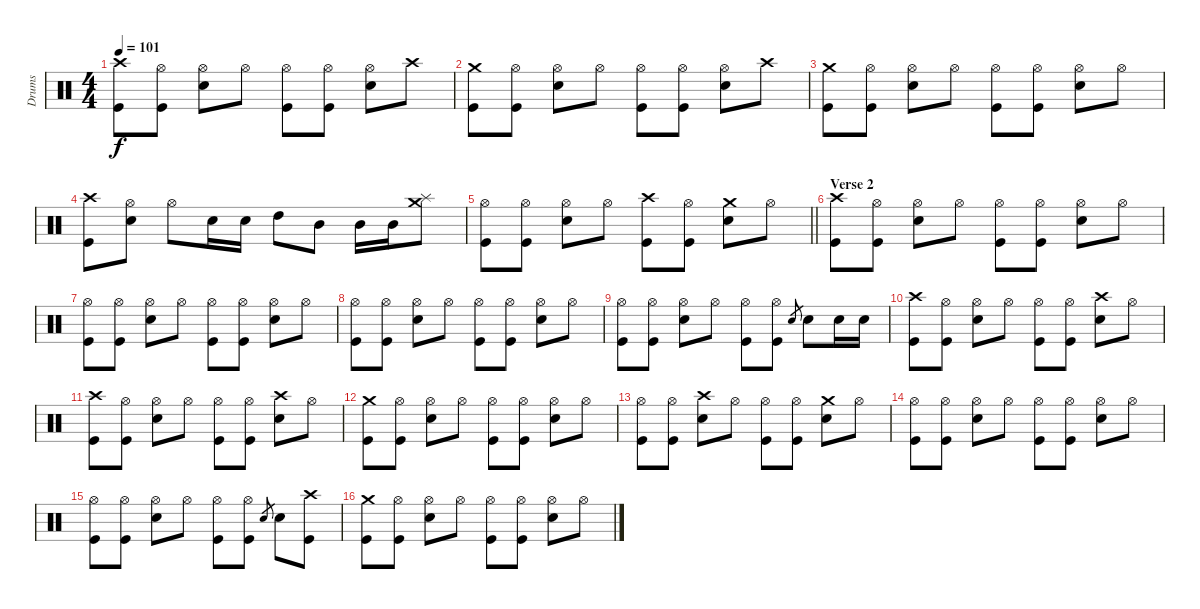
\track ("Drums" "Drums") {instrument percussion}
\staff {score}
\articulation defaults
\ts (4 4)
\tempo 101
\clef neutral
\ks c
("Crash high (hit)" "Kick (hit)").8{dy f} ("Hi-Hat (open)" "Kick (hit)").8 ("Hi-Hat (open)" "Snare (hit) 2").8 "Hi-Hat (open)".8 ("Hi-Hat (open)" "Kick (hit)").8 ("Hi-Hat (open)" "Kick (hit)").8 ("Hi-Hat (open)" "Snare (hit) 2").8 "Crash high (hit)".8 |
("Crash medium (hit)" "Kick (hit)").8 ("Hi-Hat (open)" "Kick (hit)").8 ("Hi-Hat (open)" "Snare (hit) 2").8 "Hi-Hat (open)".8 ("Hi-Hat (open)" "Kick (hit)").8 ("Hi-Hat (open)" "Kick (hit)").8 ("Hi-Hat (open)" "Snare (hit) 2").8 "Crash high (hit)".8 |
("Crash medium (hit)" "Kick (hit)").8 ("Hi-Hat (open)" "Kick (hit)").8 ("Hi-Hat (open)" "Snare (hit) 2").8 "Hi-Hat (open)".8 ("Hi-Hat (open)" "Kick (hit)").8 ("Hi-Hat (open)" "Kick (hit)").8 ("Hi-Hat (open)" "Snare (hit) 2").8 "Hi-Hat (open)".8 |
("Crash high (hit)" "Kick (hit)").8 ("Hi-Hat (open)" "Snare (hit) 2").8 "Hi-Hat (open)".8 "Snare (hit) 2".16 "Snare (hit) 2".16 "High Tom (hit)".8 "Mid Tom (hit)".8 "Mid Tom (hit)".16 "Mid Tom (hit)".16 ("Splash (hit)" "Crash medium (hit)").8 |
\barLineRight lightlight
("Hi-Hat (open)" "Kick (hit)").8 ("Hi-Hat (open)" "Kick (hit)").8 ("Hi-Hat (open)" "Snare (hit) 2").8 "Hi-Hat (open)".8 ("Crash high (hit)" "Kick (hit)").8 ("Hi-Hat (open)" "Kick (hit)").8 ("Crash medium (hit)" "Snare (hit) 2").8 "Hi-Hat (open)".8 |
\section ("" "Verse 2")
("Kick (hit)" "Crash high (hit)").8 ("Hi-Hat (open)" "Kick (hit)").8 ("Hi-Hat (open)" "Snare (hit) 2").8 "Hi-Hat (open)".8 ("Hi-Hat (open)" "Kick (hit)").8 ("Hi-Hat (open)" "Kick (hit)").8 ("Hi-Hat (open)" "Snare (hit) 2").8 "Hi-Hat (open)".8 |
("Hi-Hat (open)" "Kick (hit)").8 ("Hi-Hat (open)" "Kick (hit)").8 ("Hi-Hat (open)" "Snare (hit) 2").8 "Hi-Hat (open)".8 ("Hi-Hat (open)" "Kick (hit)").8 ("Hi-Hat (open)" "Kick (hit)").8 ("Hi-Hat (open)" "Snare (hit) 2").8 "Hi-Hat (open)".8 |
("Hi-Hat (open)" "Kick (hit)").8 ("Hi-Hat (open)" "Kick (hit)").8 ("Hi-Hat (open)" "Snare (hit) 2").8 "Hi-Hat (open)".8 ("Hi-Hat (open)" "Kick (hit)").8 ("Hi-Hat (open)" "Kick (hit)").8 ("Hi-Hat (open)" "Snare (hit) 2").8 "Hi-Hat (open)".8 |
("Hi-Hat (open)" "Kick (hit)").8 ("Hi-Hat (open)" "Kick (hit)").8 ("Hi-Hat (open)" "Snare (hit) 2").8 "Hi-Hat (open)".8 ("Hi-Hat (open)" "Kick (hit)").8 ("Hi-Hat (open)" "Kick (hit)").8 "Snare (hit) 2"{h}.8{gr} "Snare (hit) 2".8 "Snare (hit) 2".16 "Snare (hit) 2".16 |
("Crash high (hit)" "Kick (hit)").8 ("Hi-Hat (open)" "Kick (hit)").8 ("Hi-Hat (open)" "Snare (hit) 2").8 "Hi-Hat (open)".8 ("Hi-Hat (open)" "Kick (hit)").8 ("Hi-Hat (open)" "Kick (hit)").8 ("Snare (hit) 2" "Crash high (hit)").8 "Hi-Hat (open)".8 |
("Crash high (hit)" "Kick (hit)").8 ("Hi-Hat (open)" "Kick (hit)").8 ("Hi-Hat (open)" "Snare (hit) 2").8 "Hi-Hat (open)".8 ("Hi-Hat (open)" "Kick (hit)").8 ("Hi-Hat (open)" "Kick (hit)").8 ("Crash high (hit)" "Snare (hit) 2").8 "Hi-Hat (open)".8 |
("Crash medium (hit)" "Kick (hit)").8 ("Hi-Hat (open)" "Kick (hit)").8 ("Hi-Hat (open)" "Snare (hit) 2").8 "Hi-Hat (open)".8 ("Hi-Hat (open)" "Kick (hit)").8 ("Hi-Hat (open)" "Kick (hit)").8 ("Hi-Hat (open)" "Snare (hit) 2").8 "Hi-Hat (open)".8 |
("Hi-Hat (open)" "Kick (hit)").8 ("Hi-Hat (open)" "Kick (hit)").8 ("Crash high (hit)" "Snare (hit) 2").8 "Hi-Hat (open)".8 ("Hi-Hat (open)" "Kick (hit)").8 ("Hi-Hat (open)" "Kick (hit)").8 ("Crash medium (hit)" "Snare (hit) 2").8 "Hi-Hat (open)".8 |
("Hi-Hat (open)" "Kick (hit)").8 ("Hi-Hat (open)" "Kick (hit)").8 ("Hi-Hat (open)" "Snare (hit) 2").8 "Hi-Hat (open)".8 ("Hi-Hat (open)" "Kick (hit)").8 ("Hi-Hat (open)" "Kick (hit)").8 ("Hi-Hat (open)" "Snare (hit) 2").8 "Hi-Hat (open)".8 |
("Hi-Hat (open)" "Kick (hit)").8 ("Hi-Hat (open)" "Kick (hit)").8 ("Hi-Hat (open)" "Snare (hit) 2").8 "Hi-Hat (open)".8 ("Hi-Hat (open)" "Kick (hit)").8 ("Hi-Hat (open)" "Kick (hit)").8 "Snare (hit) 2"{h}.8{gr} "Snare (hit) 2".8 ("Crash high (hit)" "Kick (hit)").8 |
("Crash medium (hit)" "Kick (hit)").8 ("Hi-Hat (open)" "Kick (hit)").8 ("Hi-Hat (open)" "Snare (hit) 2").8 "Hi-Hat (open)".8 ("Hi-Hat (open)" "Kick (hit)").8 ("Hi-Hat (open)" "Kick (hit)").8 ("Hi-Hat (open)" "Snare (hit) 2").8 "Hi-Hat (open)".8
